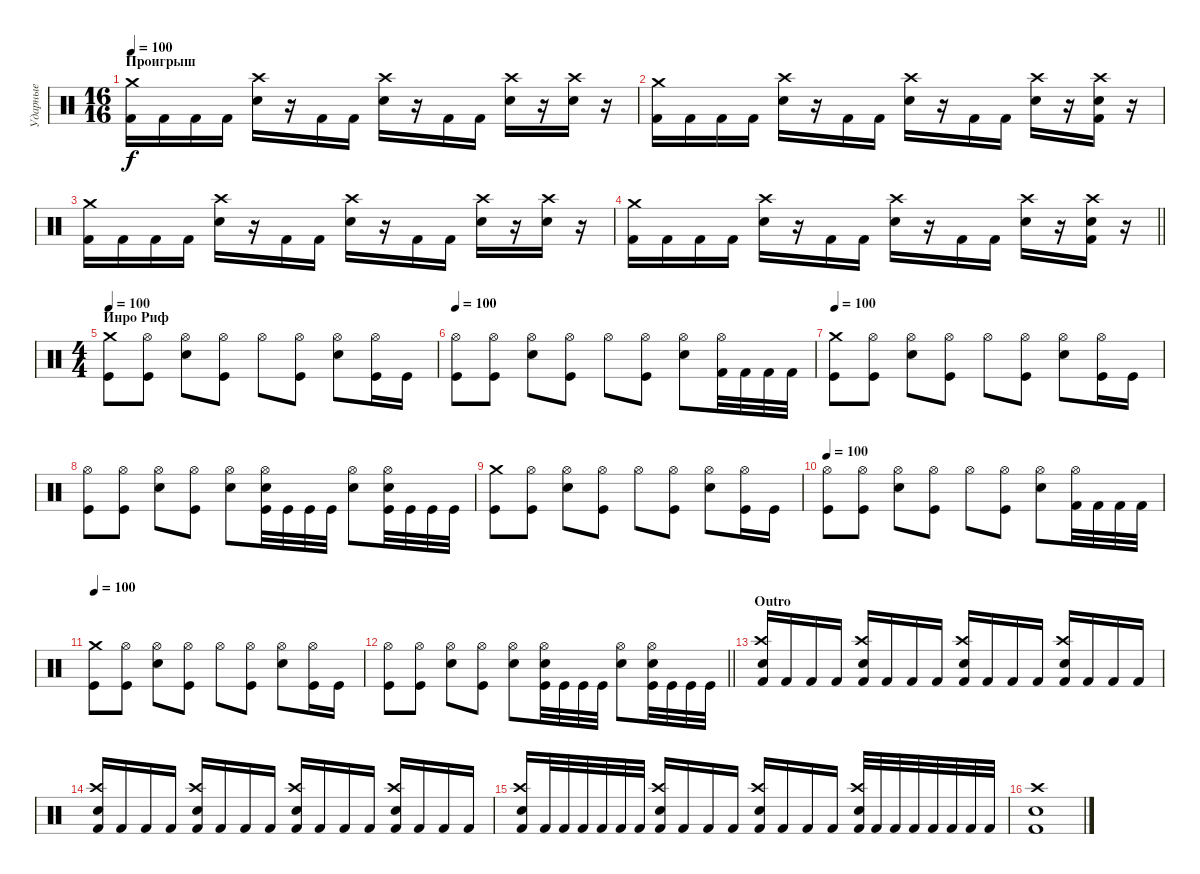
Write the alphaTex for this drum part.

\track ("Ударные" "Ударные") {instrument percussion}
\staff {score}
\articulation defaults
\ts (16 16)
\section ("" "Проигрыш")
\tempo 100
\clef neutral
\ks c
("Crash medium (hit)" "Kick (hit) 2").16{dy f} "Kick (hit) 2".16 "Kick (hit) 2".16 "Kick (hit) 2".16 ("Crash high (hit)" "Electric Snare (hit)").16 r.16 "Kick (hit) 2".16 "Kick (hit) 2".16 ("Crash high (hit)" "Electric Snare (hit)").16 r.16 "Kick (hit) 2".16 "Kick (hit) 2".16 ("Crash high (hit)" "Electric Snare (hit)").16 r.16 ("Crash high (hit)" "Electric Snare (hit)").16 r.16 |
("Crash medium (hit)" "Kick (hit) 2").16 "Kick (hit) 2".16 "Kick (hit) 2".16 "Kick (hit) 2".16 ("Crash high (hit)" "Electric Snare (hit)").16 r.16 "Kick (hit) 2".16 "Kick (hit) 2".16 ("Crash high (hit)" "Electric Snare (hit)").16 r.16 "Kick (hit) 2".16 "Kick (hit) 2".16 ("Crash high (hit)" "Electric Snare (hit)").16 r.16 ("Crash high (hit)" "Electric Snare (hit)" "Kick (hit) 2").16 r.16 |
("Crash medium (hit)" "Kick (hit) 2").16 "Kick (hit) 2".16 "Kick (hit) 2".16 "Kick (hit) 2".16 ("Crash high (hit)" "Electric Snare (hit)").16 r.16 "Kick (hit) 2".16 "Kick (hit) 2".16 ("Crash high (hit)" "Electric Snare (hit)").16 r.16 "Kick (hit) 2".16 "Kick (hit) 2".16 ("Crash high (hit)" "Electric Snare (hit)").16 r.16 ("Crash high (hit)" "Electric Snare (hit)").16 r.16 |
\barLineRight lightlight
("Crash medium (hit)" "Kick (hit) 2").16 "Kick (hit) 2".16 "Kick (hit) 2".16 "Kick (hit) 2".16 ("Crash high (hit)" "Electric Snare (hit)").16 r.16 "Kick (hit) 2".16 "Kick (hit) 2".16 ("Crash high (hit)" "Electric Snare (hit)").16 r.16 "Kick (hit) 2".16 "Kick (hit) 2".16 ("Crash high (hit)" "Electric Snare (hit)").16 r.16 ("Crash high (hit)" "Electric Snare (hit)" "Kick (hit) 2").16 r.16 |
\ts (4 4)
\section ("" "Инро Риф")
\tempo 100
("Crash medium (hit)" "Kick (hit)").8 ("Hi-Hat (open)" "Kick (hit)").8 ("Hi-Hat (open)" "Electric Snare (hit)").8 ("Hi-Hat (open)" "Kick (hit)").8 "Hi-Hat (open)".8 ("Hi-Hat (open)" "Kick (hit)").8 ("Hi-Hat (open)" "Electric Snare (hit)").8 ("Hi-Hat (open)" "Kick (hit)").16 "Kick (hit)".16 |
\tempo 100
("Hi-Hat (open)" "Kick (hit)").8 ("Hi-Hat (open)" "Kick (hit)").8 ("Hi-Hat (open)" "Electric Snare (hit)").8 ("Hi-Hat (open)" "Kick (hit)").8 "Hi-Hat (open)".8 ("Hi-Hat (open)" "Kick (hit)").8 ("Hi-Hat (open)" "Electric Snare (hit)").8 ("Hi-Hat (open)" "Kick (hit) 2").32 "Kick (hit) 2".32 "Kick (hit) 2".32 "Kick (hit) 2".32 |
\tempo 100
("Crash medium (hit)" "Kick (hit)").8 ("Hi-Hat (open)" "Kick (hit)").8 ("Hi-Hat (open)" "Electric Snare (hit)").8 ("Hi-Hat (open)" "Kick (hit)").8 "Hi-Hat (open)".8 ("Hi-Hat (open)" "Kick (hit)").8 ("Hi-Hat (open)" "Electric Snare (hit)").8 ("Hi-Hat (open)" "Kick (hit)").16 "Kick (hit)".16 |
("Hi-Hat (open)" "Kick (hit)").8 ("Hi-Hat (open)" "Kick (hit)").8 ("Hi-Hat (open)" "Electric Snare (hit)").8 ("Hi-Hat (open)" "Kick (hit)").8 ("Hi-Hat (open)" "Electric Snare (hit)").8 ("Hi-Hat (open)" "Electric Snare (hit)" "Kick (hit)").32 "Kick (hit)".32 "Kick (hit)".32 "Kick (hit)".32 ("Hi-Hat (open)" "Electric Snare (hit)").8 ("Hi-Hat (open)" "Electric Snare (hit)" "Kick (hit)").32 "Kick (hit)".32 "Kick (hit)".32 "Kick (hit)".32 |
("Crash medium (hit)" "Kick (hit)").8 ("Hi-Hat (open)" "Kick (hit)").8 ("Hi-Hat (open)" "Electric Snare (hit)").8 ("Hi-Hat (open)" "Kick (hit)").8 "Hi-Hat (open)".8 ("Hi-Hat (open)" "Kick (hit)").8 ("Hi-Hat (open)" "Electric Snare (hit)").8 ("Hi-Hat (open)" "Kick (hit)").16 "Kick (hit)".16 |
\tempo 100
("Hi-Hat (open)" "Kick (hit)").8 ("Hi-Hat (open)" "Kick (hit)").8 ("Hi-Hat (open)" "Electric Snare (hit)").8 ("Hi-Hat (open)" "Kick (hit)").8 "Hi-Hat (open)".8 ("Hi-Hat (open)" "Kick (hit)").8 ("Hi-Hat (open)" "Electric Snare (hit)").8 ("Hi-Hat (open)" "Kick (hit) 2").32 "Kick (hit) 2".32 "Kick (hit) 2".32 "Kick (hit) 2".32 |
\tempo 100
("Crash medium (hit)" "Kick (hit)").8 ("Hi-Hat (open)" "Kick (hit)").8 ("Hi-Hat (open)" "Electric Snare (hit)").8 ("Hi-Hat (open)" "Kick (hit)").8 "Hi-Hat (open)".8 ("Hi-Hat (open)" "Kick (hit)").8 ("Hi-Hat (open)" "Electric Snare (hit)").8 ("Hi-Hat (open)" "Kick (hit)").16 "Kick (hit)".16 |
\barLineRight lightlight
("Hi-Hat (open)" "Kick (hit)").8 ("Hi-Hat (open)" "Kick (hit)").8 ("Hi-Hat (open)" "Electric Snare (hit)").8 ("Hi-Hat (open)" "Kick (hit)").8 ("Hi-Hat (open)" "Electric Snare (hit)").8 ("Hi-Hat (open)" "Electric Snare (hit)" "Kick (hit)").32 "Kick (hit)".32 "Kick (hit)".32 "Kick (hit)".32 ("Hi-Hat (open)" "Electric Snare (hit)").8 ("Hi-Hat (open)" "Electric Snare (hit)" "Kick (hit)").32 "Kick (hit)".32 "Kick (hit)".32 "Kick (hit)".32 |
\section ("" "Оutro")
("Crash high (hit)" "Electric Snare (hit)" "Kick (hit) 2").16 "Kick (hit) 2".16 "Kick (hit) 2".16 "Kick (hit) 2".16 ("Crash high (hit)" "Electric Snare (hit)" "Kick (hit) 2").16 "Kick (hit) 2".16 "Kick (hit) 2".16 "Kick (hit) 2".16 ("Crash high (hit)" "Electric Snare (hit)" "Kick (hit) 2").16 "Kick (hit) 2".16 "Kick (hit) 2".16 "Kick (hit) 2".16 ("Crash high (hit)" "Electric Snare (hit)" "Kick (hit) 2").16 "Kick (hit) 2".16 "Kick (hit) 2".16 "Kick (hit) 2".16 |
("Crash high (hit)" "Electric Snare (hit)" "Kick (hit) 2").16 "Kick (hit) 2".16 "Kick (hit) 2".16 "Kick (hit) 2".16 ("Crash high (hit)" "Electric Snare (hit)" "Kick (hit) 2").16 "Kick (hit) 2".16 "Kick (hit) 2".16 "Kick (hit) 2".16 ("Crash high (hit)" "Electric Snare (hit)" "Kick (hit) 2").16 "Kick (hit) 2".16 "Kick (hit) 2".16 "Kick (hit) 2".16 ("Crash high (hit)" "Electric Snare (hit)" "Kick (hit) 2").16 "Kick (hit) 2".16 "Kick (hit) 2".16 "Kick (hit) 2".16 |
("Crash high (hit)" "Electric Snare (hit)" "Kick (hit) 2").16 "Kick (hit) 2".32 "Kick (hit) 2".32 "Kick (hit) 2".32 "Kick (hit) 2".32 "Kick (hit) 2".32 "Kick (hit) 2".32 ("Crash high (hit)" "Electric Snare (hit)" "Kick (hit) 2").16 "Kick (hit) 2".16 "Kick (hit) 2".16 "Kick (hit) 2".16 ("Crash high (hit)" "Electric Snare (hit)" "Kick (hit) 2").16 "Kick (hit) 2".16 "Kick (hit) 2".16 "Kick (hit) 2".16 ("Crash high (hit)" "Electric Snare (hit)" "Kick (hit) 2").32 "Kick (hit) 2".32 "Kick (hit) 2".32 "Kick (hit) 2".32 "Kick (hit) 2".32 "Kick (hit) 2".32 "Kick (hit) 2".32 "Kick (hit) 2".32 |
("Crash high (hit)" "Electric Snare (hit)" "Kick (hit) 2").1
